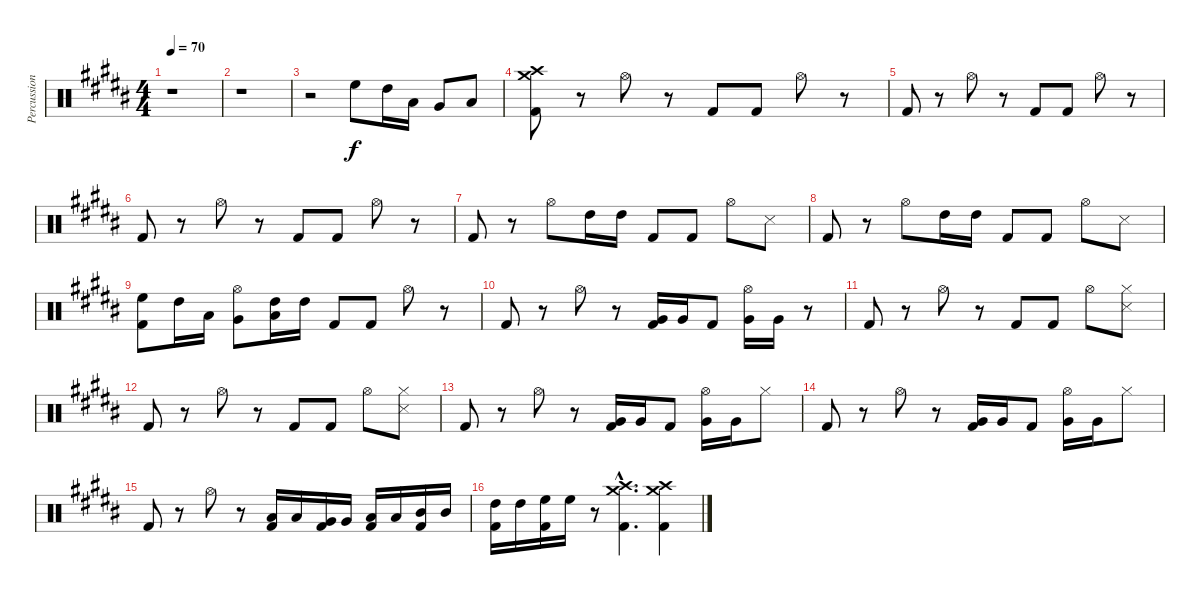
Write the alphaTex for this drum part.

\track ("Percussions" "Percussion") {instrument percussion}
\staff {score}
\articulation defaults
\ts (4 4)
\tempo 70
\clef neutral
\ks g#minor
r.1{dy f} |
r.1 |
r.2 "High Floor Tom (hit)".8 "High Tom (hit)".16 "Low Tom (hit)".16 "Very Low Tom (hit)".8 "Low Floor Tom (hit)".8 |
("Kick (hit) 2" "Crash high (hit)" "Crash medium (hit)").8 r.8 "Hi-Hat (open)".8 r.8 "Kick (hit) 2".8 "Kick (hit) 2".8 "Hi-Hat (open)".8 r.8 |
"Kick (hit) 2".8 r.8 "Hi-Hat (open)".8 r.8 "Kick (hit) 2".8 "Kick (hit) 2".8 "Hi-Hat (open)".8 r.8 |
"Kick (hit) 2".8 r.8 "Hi-Hat (open)".8 r.8 "Kick (hit) 2".8 "Kick (hit) 2".8 "Hi-Hat (open)".8 r.8 |
"Kick (hit) 2".8 r.8 "Hi-Hat (open)".8 "High Tom (hit)".16 "High Tom (hit)".16 "Kick (hit) 2".8 "Kick (hit) 2".8 "Hi-Hat (open)".8 "Snare (side stick) 3".8 |
"Kick (hit) 2".8 r.8 "Hi-Hat (open)".8 "High Tom (hit)".16 "High Tom (hit)".16 "Kick (hit) 2".8 "Kick (hit) 2".8 "Hi-Hat (open)".8 "Snare (side stick) 3".8 |
("Kick (hit) 2" "High Floor Tom (hit)").8 "High Tom (hit)".16 "Low Tom (hit)".16 ("Very Low Tom (hit)" "Hi-Hat (open)").8 ("Low Floor Tom (hit)" "High Tom (hit)").16 "High Tom (hit)".16 "Kick (hit) 2".8 "Kick (hit) 2".8 "Hi-Hat (open)".8 r.8 |
"Kick (hit) 2".8 r.8 "Hi-Hat (open)".8 r.8 ("Kick (hit) 2" "Very Low Tom (hit)").16 "Very Low Tom (hit)".16 "Kick (hit) 2".8 ("Very Low Tom (hit)" "Hi-Hat (open)").16 "Very Low Tom (hit)".16 r.8 |
"Kick (hit) 2".8 r.8 "Hi-Hat (open)".8 r.8 "Kick (hit) 2".8 "Kick (hit) 2".8 "Hi-Hat (open)".8 ("Snare (side stick) 3" "Hi-Hat (closed)").8 |
"Kick (hit) 2".8 r.8 "Hi-Hat (open)".8 r.8 "Kick (hit) 2".8 "Kick (hit) 2".8 "Hi-Hat (open)".8 ("Snare (side stick) 3" "Hi-Hat (closed)").8 |
"Kick (hit) 2".8 r.8 "Hi-Hat (open)".8 r.8 ("Kick (hit) 2" "Very Low Tom (hit)").16 "Very Low Tom (hit)".16 "Kick (hit) 2".8 ("Very Low Tom (hit)" "Hi-Hat (open)").16 "Very Low Tom (hit)".16 "Hi-Hat (closed)".8 |
"Kick (hit) 2".8 r.8 "Hi-Hat (open)".8 r.8 ("Kick (hit) 2" "Very Low Tom (hit)").16 "Very Low Tom (hit)".16 "Kick (hit) 2".8 ("Very Low Tom (hit)" "Hi-Hat (open)").16 "Very Low Tom (hit)".16 "Hi-Hat (closed)".8 |
"Kick (hit) 2".8 r.8 "Hi-Hat (open)".8 r.8 ("Kick (hit) 2" "Low Floor Tom (hit)").16 "Low Floor Tom (hit)".16 ("Kick (hit) 2" "Very Low Tom (hit)").16 "Very Low Tom (hit)".16 ("Kick (hit) 2" "Low Tom (hit)").16 "Low Tom (hit)".16 ("Kick (hit) 2" "Mid Tom (hit)").16 "Mid Tom (hit)".16 |
("Kick (hit) 2" "High Tom (hit)").16 "High Tom (hit)".16 ("Kick (hit) 2" "High Floor Tom (hit)").16 "High Floor Tom (hit)".16 r.8 ("Kick (hit) 2"{hac} "Crash high (hit)"{hac} "Crash medium (hit)"{hac}).4{d} ("Kick (hit) 2" "Crash high (hit)" "Crash medium (hit)").4
